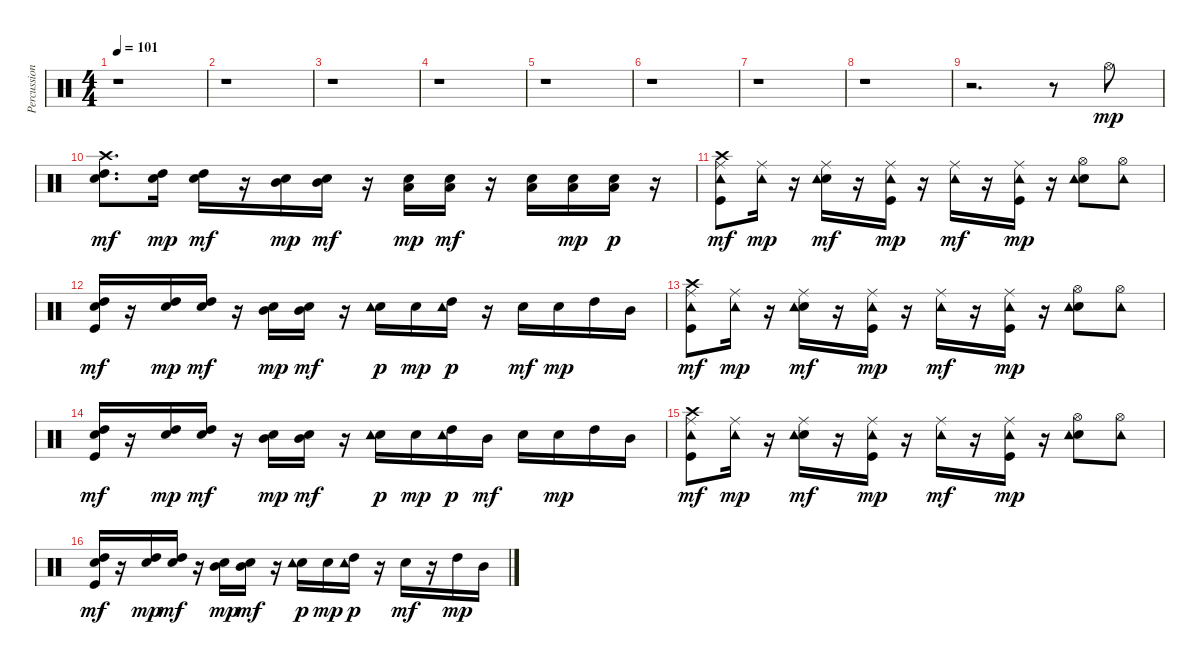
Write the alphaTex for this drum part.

\track ("Percussion" "Percussion") {instrument percussion}
\staff {score}
\articulation defaults
\ts (4 4)
\tempo 101
\clef neutral
\ks c
r.1{dy mp} |
r.1 |
r.1 |
r.1 |
r.1 |
r.1 |
r.1 |
r.1 |
r.2{d} r.8 "Hi-Hat (open)".8 |
("Electric Snare (hit)" "Crash high (hit)" "High Tom (hit)").8{d dy mf} ("Electric Snare (hit)" "High Tom (hit)").16{dy mp} ("Electric Snare (hit)" "High Tom (hit)").16{dy mf} r.16 ("Electric Snare (hit)" "Mid Tom (hit)").16{dy mp} ("Mid Tom (hit)" "Electric Snare (hit)").16{dy mf} r.16 ("Electric Snare (hit)" "Low Tom (hit)").16{dy mp} ("Electric Snare (hit)" "Low Tom (hit)").16{dy mf} r.16 ("Electric Snare (hit)" "Low Tom (hit)").16 ("Electric Snare (hit)" "Low Tom (hit)").16{dy mp} ("Electric Snare (hit)" "Low Tom (hit)").16{dy p} r.16 |
("Crash high (hit)" "Kick (hit)" "Tambourine (hit)" "Ride (middle)").8{dy mf} ("Tambourine (hit)" "Ride (middle)").16{dy mp} r.16 ("Electric Snare (hit)" "Tambourine (hit)" "Ride (middle)").16{dy mf} r.16 ("Kick (hit)" "Tambourine (hit)" "Ride (middle)").16{dy mp} r.16 ("Tambourine (hit)" "Ride (middle)").16{dy mf} r.16 ("Kick (hit)" "Tambourine (hit)" "Ride (middle)").16{dy mp} r.16 ("Electric Snare (hit)" "Tambourine (hit)" "Hi-Hat (open)").8 ("Tambourine (hit)" "Hi-Hat (open)").8 |
("Electric Snare (hit)" "Kick (hit)" "High Tom (hit)").16{dy mf} r.16 ("Electric Snare (hit)" "High Tom (hit)").16{dy mp} ("Electric Snare (hit)" "High Tom (hit)").16{dy mf} r.16 ("Electric Snare (hit)" "Mid Tom (hit)").16{dy mp} ("Electric Snare (hit)" "Mid Tom (hit)").16{dy mf} r.16 ("Electric Snare (hit)" "Tambourine (hit)").16{dy p} "Electric Snare (hit)".16{dy mp} ("High Tom (hit)" "Tambourine (hit)").16{dy p} r.16 "Electric Snare (hit)".16{dy mf} "Electric Snare (hit)".16{dy mp} "High Tom (hit)".16 "Mid Tom (hit)".16 |
("Crash high (hit)" "Kick (hit)" "Tambourine (hit)" "Ride (middle)").8{dy mf} ("Tambourine (hit)" "Ride (middle)").16{dy mp} r.16 ("Electric Snare (hit)" "Tambourine (hit)" "Ride (middle)").16{dy mf} r.16 ("Kick (hit)" "Tambourine (hit)" "Ride (middle)").16{dy mp} r.16 ("Tambourine (hit)" "Ride (middle)").16{dy mf} r.16 ("Kick (hit)" "Tambourine (hit)" "Ride (middle)").16{dy mp} r.16 ("Electric Snare (hit)" "Tambourine (hit)" "Hi-Hat (open)").8 ("Tambourine (hit)" "Hi-Hat (open)").8 |
("Electric Snare (hit)" "Kick (hit)" "High Tom (hit)").16{dy mf} r.16 ("Electric Snare (hit)" "High Tom (hit)").16{dy mp} ("Electric Snare (hit)" "High Tom (hit)").16{dy mf} r.16 ("Electric Snare (hit)" "Mid Tom (hit)").16{dy mp} ("Electric Snare (hit)" "Mid Tom (hit)").16{dy mf} r.16 ("Electric Snare (hit)" "Tambourine (hit)").16{dy p} "Electric Snare (hit)".16{dy mp} ("High Tom (hit)" "Tambourine (hit)").16{dy p} "Mid Tom (hit)".16{dy mf} "Electric Snare (hit)".16 "Electric Snare (hit)".16{dy mp} "High Tom (hit)".16 "Mid Tom (hit)".16 |
("Crash high (hit)" "Kick (hit)" "Tambourine (hit)" "Ride (middle)").8{dy mf} ("Tambourine (hit)" "Ride (middle)").16{dy mp} r.16 ("Electric Snare (hit)" "Tambourine (hit)" "Ride (middle)").16{dy mf} r.16 ("Kick (hit)" "Tambourine (hit)" "Ride (middle)").16{dy mp} r.16 ("Tambourine (hit)" "Ride (middle)").16{dy mf} r.16 ("Kick (hit)" "Tambourine (hit)" "Ride (middle)").16{dy mp} r.16 ("Electric Snare (hit)" "Tambourine (hit)" "Hi-Hat (open)").8 ("Tambourine (hit)" "Hi-Hat (open)").8 |
("Electric Snare (hit)" "Kick (hit)" "High Tom (hit)").16{dy mf} r.16 ("Electric Snare (hit)" "High Tom (hit)").16{dy mp} ("Electric Snare (hit)" "High Tom (hit)").16{dy mf} r.16 ("Electric Snare (hit)" "Mid Tom (hit)").16{dy mp} ("Electric Snare (hit)" "Mid Tom (hit)").16{dy mf} r.16 ("Electric Snare (hit)" "Tambourine (hit)").16{dy p} "Electric Snare (hit)".16{dy mp} ("High Tom (hit)" "Tambourine (hit)").16{dy p} r.16 "Electric Snare (hit)".16{dy mf} r.16 "High Tom (hit)".16{dy mp} "Mid Tom (hit)".16
